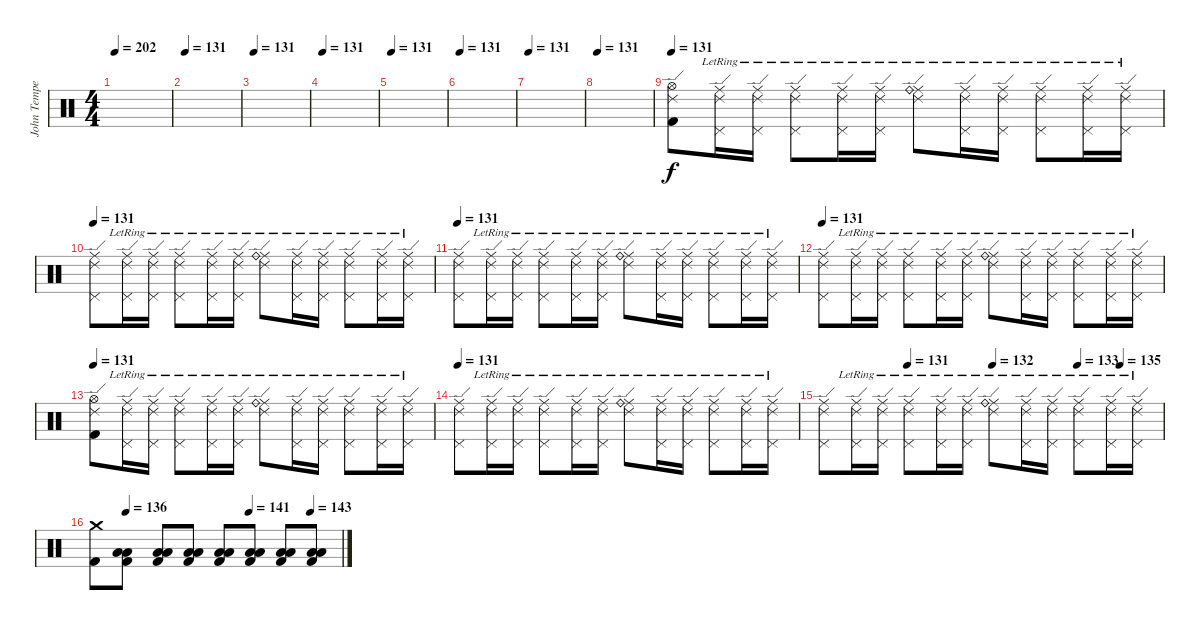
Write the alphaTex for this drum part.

\track ("John Tempesta" "John Tempe") {instrument percussion}
\staff {score}
\articulation defaults
\ts (4 4)
\tempo 202
\tempo 131
\tempo 202
\clef neutral
\ks c
|
\tempo 131
|
\tempo 131
|
\tempo 131
|
\tempo 131
|
\tempo 131
|
\tempo 131
|
\tempo 131
|
\tempo 131
("Kick (hit) 2" "Hi-Hat (open)" "Ride (edge) 2").8 ("Pedal Hi-Hat (hit)" "Ride (edge) 2"{lr} "Ride (middle)").16 ("Pedal Hi-Hat (hit)" "Ride (edge) 2"{lr} "Ride (middle)").16 ("Pedal Hi-Hat (hit)" "Ride (edge) 2"{lr} "Ride (middle)").8 ("Pedal Hi-Hat (hit)" "Ride (edge) 2"{lr} "Ride (middle)").16 ("Pedal Hi-Hat (hit)" "Ride (edge) 2"{lr} "Ride (middle)").16 ("Ride (middle)" "Ride (edge) 2"{lr} "Ride (bell)").8 ("Pedal Hi-Hat (hit)" "Ride (edge) 2"{lr} "Ride (middle)").16 ("Pedal Hi-Hat (hit)" "Ride (edge) 2"{lr} "Ride (middle)").16 ("Pedal Hi-Hat (hit)" "Ride (edge) 2"{lr} "Ride (middle)").8 ("Pedal Hi-Hat (hit)" "Ride (edge) 2"{lr} "Ride (middle)").16 ("Pedal Hi-Hat (hit)" "Ride (edge) 2"{lr} "Ride (middle)").16 |
\tempo 131
("Ride (middle)" "Pedal Hi-Hat (hit)" "Ride (edge) 2").8 ("Pedal Hi-Hat (hit)" "Ride (edge) 2"{lr} "Ride (middle)").16 ("Pedal Hi-Hat (hit)" "Ride (edge) 2"{lr} "Ride (middle)").16 ("Pedal Hi-Hat (hit)" "Ride (edge) 2"{lr} "Ride (middle)").8 ("Pedal Hi-Hat (hit)" "Ride (edge) 2"{lr} "Ride (middle)").16 ("Pedal Hi-Hat (hit)" "Ride (edge) 2"{lr} "Ride (middle)").16 ("Ride (middle)" "Ride (edge) 2"{lr} "Ride (bell)").8 ("Pedal Hi-Hat (hit)" "Ride (edge) 2"{lr} "Ride (middle)").16 ("Pedal Hi-Hat (hit)" "Ride (edge) 2"{lr} "Ride (middle)").16 ("Pedal Hi-Hat (hit)" "Ride (edge) 2"{lr} "Ride (middle)").8 ("Pedal Hi-Hat (hit)" "Ride (edge) 2"{lr} "Ride (middle)").16 ("Pedal Hi-Hat (hit)" "Ride (edge) 2"{lr} "Ride (middle)").16 |
\tempo 131
("Ride (middle)" "Pedal Hi-Hat (hit)" "Ride (edge) 2").8 ("Pedal Hi-Hat (hit)" "Ride (edge) 2"{lr} "Ride (middle)").16 ("Pedal Hi-Hat (hit)" "Ride (edge) 2"{lr} "Ride (middle)").16 ("Pedal Hi-Hat (hit)" "Ride (edge) 2"{lr} "Ride (middle)").8 ("Pedal Hi-Hat (hit)" "Ride (edge) 2"{lr} "Ride (middle)").16 ("Pedal Hi-Hat (hit)" "Ride (edge) 2"{lr} "Ride (middle)").16 ("Ride (middle)" "Ride (edge) 2"{lr} "Ride (bell)").8 ("Pedal Hi-Hat (hit)" "Ride (edge) 2"{lr} "Ride (middle)").16 ("Pedal Hi-Hat (hit)" "Ride (edge) 2"{lr} "Ride (middle)").16 ("Pedal Hi-Hat (hit)" "Ride (edge) 2"{lr} "Ride (middle)").8 ("Pedal Hi-Hat (hit)" "Ride (edge) 2"{lr} "Ride (middle)").16 ("Pedal Hi-Hat (hit)" "Ride (edge) 2"{lr} "Ride (middle)").16 |
\tempo 131
("Ride (middle)" "Pedal Hi-Hat (hit)" "Ride (edge) 2").8 ("Pedal Hi-Hat (hit)" "Ride (edge) 2"{lr} "Ride (middle)").16 ("Pedal Hi-Hat (hit)" "Ride (edge) 2"{lr} "Ride (middle)").16 ("Pedal Hi-Hat (hit)" "Ride (edge) 2"{lr} "Ride (middle)").8 ("Pedal Hi-Hat (hit)" "Ride (edge) 2"{lr} "Ride (middle)").16 ("Pedal Hi-Hat (hit)" "Ride (edge) 2"{lr} "Ride (middle)").16 ("Ride (middle)" "Ride (edge) 2"{lr} "Ride (bell)").8 ("Pedal Hi-Hat (hit)" "Ride (edge) 2"{lr} "Ride (middle)").16 ("Pedal Hi-Hat (hit)" "Ride (edge) 2"{lr} "Ride (middle)").16 ("Pedal Hi-Hat (hit)" "Ride (edge) 2"{lr} "Ride (middle)").8 ("Pedal Hi-Hat (hit)" "Ride (edge) 2"{lr} "Ride (middle)").16 ("Pedal Hi-Hat (hit)" "Ride (edge) 2"{lr} "Ride (middle)").16 |
\tempo 131
("Kick (hit) 2" "Hi-Hat (open)" "Ride (edge) 2").8 ("Pedal Hi-Hat (hit)" "Ride (edge) 2"{lr} "Ride (middle)").16 ("Pedal Hi-Hat (hit)" "Ride (edge) 2"{lr} "Ride (middle)").16 ("Pedal Hi-Hat (hit)" "Ride (edge) 2"{lr} "Ride (middle)").8 ("Pedal Hi-Hat (hit)" "Ride (edge) 2"{lr} "Ride (middle)").16 ("Pedal Hi-Hat (hit)" "Ride (edge) 2"{lr} "Ride (middle)").16 ("Ride (middle)" "Ride (edge) 2"{lr} "Ride (bell)").8 ("Pedal Hi-Hat (hit)" "Ride (edge) 2"{lr} "Ride (middle)").16 ("Pedal Hi-Hat (hit)" "Ride (edge) 2"{lr} "Ride (middle)").16 ("Pedal Hi-Hat (hit)" "Ride (edge) 2"{lr} "Ride (middle)").8 ("Pedal Hi-Hat (hit)" "Ride (edge) 2"{lr} "Ride (middle)").16 ("Pedal Hi-Hat (hit)" "Ride (edge) 2"{lr} "Ride (middle)").16 |
\tempo 131
("Ride (middle)" "Pedal Hi-Hat (hit)" "Ride (edge) 2").8 ("Pedal Hi-Hat (hit)" "Ride (edge) 2"{lr} "Ride (middle)").16 ("Pedal Hi-Hat (hit)" "Ride (edge) 2"{lr} "Ride (middle)").16 ("Pedal Hi-Hat (hit)" "Ride (edge) 2"{lr} "Ride (middle)").8 ("Pedal Hi-Hat (hit)" "Ride (edge) 2"{lr} "Ride (middle)").16 ("Pedal Hi-Hat (hit)" "Ride (edge) 2"{lr} "Ride (middle)").16 ("Ride (middle)" "Ride (edge) 2"{lr} "Ride (bell)").8 ("Pedal Hi-Hat (hit)" "Ride (edge) 2"{lr} "Ride (middle)").16 ("Pedal Hi-Hat (hit)" "Ride (edge) 2"{lr} "Ride (middle)").16 ("Pedal Hi-Hat (hit)" "Ride (edge) 2"{lr} "Ride (middle)").8 ("Pedal Hi-Hat (hit)" "Ride (edge) 2"{lr} "Ride (middle)").16 ("Pedal Hi-Hat (hit)" "Ride (edge) 2"{lr} "Ride (middle)").16 |
\tempo (131 0.25)
\tempo (132 0.5)
\tempo (133 0.75)
\tempo (135 0.875)
("Ride (middle)" "Pedal Hi-Hat (hit)" "Ride (edge) 2").8 ("Pedal Hi-Hat (hit)" "Ride (edge) 2"{lr} "Ride (middle)").16 ("Pedal Hi-Hat (hit)" "Ride (edge) 2"{lr} "Ride (middle)").16 ("Pedal Hi-Hat (hit)" "Ride (edge) 2"{lr} "Ride (middle)").8 ("Pedal Hi-Hat (hit)" "Ride (edge) 2"{lr} "Ride (middle)").16 ("Pedal Hi-Hat (hit)" "Ride (edge) 2"{lr} "Ride (middle)").16 ("Ride (middle)" "Ride (edge) 2"{lr} "Ride (bell)").8 ("Pedal Hi-Hat (hit)" "Ride (edge) 2"{lr} "Ride (middle)").16 ("Pedal Hi-Hat (hit)" "Ride (edge) 2"{lr} "Ride (middle)").16 ("Pedal Hi-Hat (hit)" "Ride (edge) 2"{lr} "Ride (middle)").8 ("Pedal Hi-Hat (hit)" "Ride (edge) 2"{lr} "Ride (middle)").16 ("Pedal Hi-Hat (hit)" "Ride (edge) 2"{lr} "Ride (middle)").16 |
\tempo (136 0.125)
\tempo (141 0.625)
\tempo (143 0.875)
("Kick (hit) 2" "Crash medium (hit)").8 ("Kick (hit) 2" "Low Tom (hit)" "Low Floor Tom (hit)").8 ("Kick (hit) 2" "Low Tom (hit)" "Low Floor Tom (hit)").8 ("Kick (hit) 2" "Low Tom (hit)" "Low Floor Tom (hit)").8 ("Kick (hit) 2" "Low Tom (hit)" "Low Floor Tom (hit)").8 ("Kick (hit) 2" "Low Tom (hit)" "Low Floor Tom (hit)").8 ("Kick (hit) 2" "Low Tom (hit)" "Low Floor Tom (hit)").8 ("Kick (hit) 2" "Low Tom (hit)" "Low Floor Tom (hit)").8
